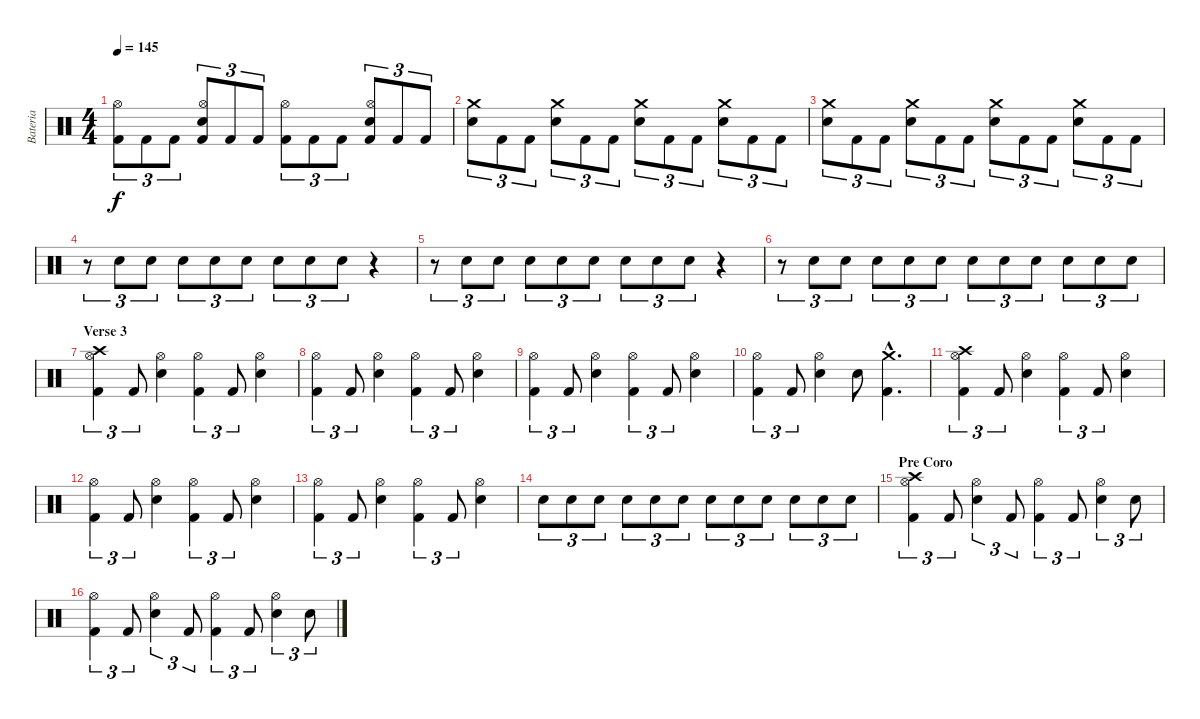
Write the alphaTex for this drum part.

\track ("Bateria" "Bateria") {instrument percussion}
\staff {score}
\articulation defaults
\ts (4 4)
\tempo 145
\clef neutral
\ks c
("Kick (hit) 2" "Hi-Hat (open)").8{tu (3 2) dy f} "Kick (hit) 2".8{tu (3 2)} "Kick (hit) 2".8{tu (3 2)} ("Kick (hit) 2" "Snare (hit) 2" "Hi-Hat (open)").8{tu (3 2)} "Kick (hit) 2".8{tu (3 2)} "Kick (hit) 2".8{tu (3 2)} ("Kick (hit) 2" "Hi-Hat (open)").8{tu (3 2)} "Kick (hit) 2".8{tu (3 2)} "Kick (hit) 2".8{tu (3 2)} ("Kick (hit) 2" "Snare (hit) 2" "Hi-Hat (open)").8{tu (3 2)} "Kick (hit) 2".8{tu (3 2)} "Kick (hit) 2".8{tu (3 2)} |
("Snare (hit) 2" "Crash medium (hit)").8{tu (3 2)} "Kick (hit) 2".8{tu (3 2)} "Kick (hit) 2".8{tu (3 2)} ("Snare (hit) 2" "Crash medium (hit)").8{tu (3 2)} "Kick (hit) 2".8{tu (3 2)} "Kick (hit) 2".8{tu (3 2)} ("Snare (hit) 2" "Crash medium (hit)").8{tu (3 2)} "Kick (hit) 2".8{tu (3 2)} "Kick (hit) 2".8{tu (3 2)} ("Snare (hit) 2" "Crash medium (hit)").8{tu (3 2)} "Kick (hit) 2".8{tu (3 2)} "Kick (hit) 2".8{tu (3 2)} |
("Snare (hit) 2" "Crash medium (hit)").8{tu (3 2)} "Kick (hit) 2".8{tu (3 2)} "Kick (hit) 2".8{tu (3 2)} ("Snare (hit) 2" "Crash medium (hit)").8{tu (3 2)} "Kick (hit) 2".8{tu (3 2)} "Kick (hit) 2".8{tu (3 2)} ("Snare (hit) 2" "Crash medium (hit)").8{tu (3 2)} "Kick (hit) 2".8{tu (3 2)} "Kick (hit) 2".8{tu (3 2)} ("Snare (hit) 2" "Crash medium (hit)").8{tu (3 2)} "Kick (hit) 2".8{tu (3 2)} "Kick (hit) 2".8{tu (3 2)} |
r.8{tu (3 2)} "Snare (hit) 2".8{tu (3 2)} "Snare (hit) 2".8{tu (3 2)} "Snare (hit) 2".8{tu (3 2)} "Snare (hit) 2".8{tu (3 2)} "Snare (hit) 2".8{tu (3 2)} "Snare (hit) 2".8{tu (3 2)} "Snare (hit) 2".8{tu (3 2)} "Snare (hit) 2".8{tu (3 2)} r.4 |
r.8{tu (3 2)} "Snare (hit) 2".8{tu (3 2)} "Snare (hit) 2".8{tu (3 2)} "Snare (hit) 2".8{tu (3 2)} "Snare (hit) 2".8{tu (3 2)} "Snare (hit) 2".8{tu (3 2)} "Snare (hit) 2".8{tu (3 2)} "Snare (hit) 2".8{tu (3 2)} "Snare (hit) 2".8{tu (3 2)} r.4 |
r.8{tu (3 2)} "Snare (hit) 2".8{tu (3 2)} "Snare (hit) 2".8{tu (3 2)} "Snare (hit) 2".8{tu (3 2)} "Snare (hit) 2".8{tu (3 2)} "Snare (hit) 2".8{tu (3 2)} "Snare (hit) 2".8{tu (3 2)} "Snare (hit) 2".8{tu (3 2)} "Snare (hit) 2".8{tu (3 2)} "Snare (hit) 2".8{tu (3 2)} "Snare (hit) 2".8{tu (3 2)} "Snare (hit) 2".8{tu (3 2)} |
\section ("" "Verse 3")
("Crash high (hit)" "Hi-Hat (open)" "Kick (hit) 2").4{tu (3 2)} "Kick (hit) 2".8{tu (3 2)} ("Hi-Hat (open)" "Snare (hit) 2").4 ("Hi-Hat (open)" "Kick (hit) 2").4{tu (3 2)} "Kick (hit) 2".8{tu (3 2)} ("Hi-Hat (open)" "Snare (hit) 2").4 |
("Hi-Hat (open)" "Kick (hit) 2").4{tu (3 2)} "Kick (hit) 2".8{tu (3 2)} ("Hi-Hat (open)" "Snare (hit) 2").4 ("Hi-Hat (open)" "Kick (hit) 2").4{tu (3 2)} "Kick (hit) 2".8{tu (3 2)} ("Hi-Hat (open)" "Snare (hit) 2").4 |
("Hi-Hat (open)" "Kick (hit) 2").4{tu (3 2)} "Kick (hit) 2".8{tu (3 2)} ("Hi-Hat (open)" "Snare (hit) 2").4 ("Hi-Hat (open)" "Kick (hit) 2").4{tu (3 2)} "Kick (hit) 2".8{tu (3 2)} ("Hi-Hat (open)" "Snare (hit) 2").4 |
("Hi-Hat (open)" "Kick (hit) 2").4{tu (3 2)} "Kick (hit) 2".8{tu (3 2)} ("Hi-Hat (open)" "Snare (hit) 2").4 "Snare (hit) 2".8 ("Crash medium (hit)"{hac} "Kick (hit) 2"{hac}).4{d} |
("Crash high (hit)" "Hi-Hat (open)" "Kick (hit) 2").4{tu (3 2)} "Kick (hit) 2".8{tu (3 2)} ("Hi-Hat (open)" "Snare (hit) 2").4 ("Hi-Hat (open)" "Kick (hit) 2").4{tu (3 2)} "Kick (hit) 2".8{tu (3 2)} ("Hi-Hat (open)" "Snare (hit) 2").4 |
("Hi-Hat (open)" "Kick (hit) 2").4{tu (3 2)} "Kick (hit) 2".8{tu (3 2)} ("Hi-Hat (open)" "Snare (hit) 2").4 ("Hi-Hat (open)" "Kick (hit) 2").4{tu (3 2)} "Kick (hit) 2".8{tu (3 2)} ("Hi-Hat (open)" "Snare (hit) 2").4 |
("Hi-Hat (open)" "Kick (hit) 2").4{tu (3 2)} "Kick (hit) 2".8{tu (3 2)} ("Hi-Hat (open)" "Snare (hit) 2").4 ("Hi-Hat (open)" "Kick (hit) 2").4{tu (3 2)} "Kick (hit) 2".8{tu (3 2)} ("Hi-Hat (open)" "Snare (hit) 2").4 |
"Snare (hit) 2".8{tu (3 2)} "Snare (hit) 2".8{tu (3 2)} "Snare (hit) 2".8{tu (3 2)} "Snare (hit) 2".8{tu (3 2)} "Snare (hit) 2".8{tu (3 2)} "Snare (hit) 2".8{tu (3 2)} "Snare (hit) 2".8{tu (3 2)} "Snare (hit) 2".8{tu (3 2)} "Snare (hit) 2".8{tu (3 2)} "Snare (hit) 2".8{tu (3 2)} "Snare (hit) 2".8{tu (3 2)} "Snare (hit) 2".8{tu (3 2)} |
\section ("" "Pre Coro")
("Crash high (hit)" "Hi-Hat (open)" "Kick (hit) 2").4{tu (3 2)} "Kick (hit) 2".8{tu (3 2)} ("Hi-Hat (open)" "Snare (hit) 2").4{tu (3 2)} "Kick (hit) 2".8{tu (3 2)} ("Hi-Hat (open)" "Kick (hit) 2").4{tu (3 2)} "Kick (hit) 2".8{tu (3 2)} ("Hi-Hat (open)" "Snare (hit) 2").4{tu (3 2)} "Snare (hit) 2".8{tu (3 2)} |
("Hi-Hat (open)" "Kick (hit) 2").4{tu (3 2)} "Kick (hit) 2".8{tu (3 2)} ("Hi-Hat (open)" "Snare (hit) 2").4{tu (3 2)} "Kick (hit) 2".8{tu (3 2)} ("Hi-Hat (open)" "Kick (hit) 2").4{tu (3 2)} "Kick (hit) 2".8{tu (3 2)} ("Hi-Hat (open)" "Snare (hit) 2").4{tu (3 2)} "Snare (hit) 2".8{tu (3 2)}
